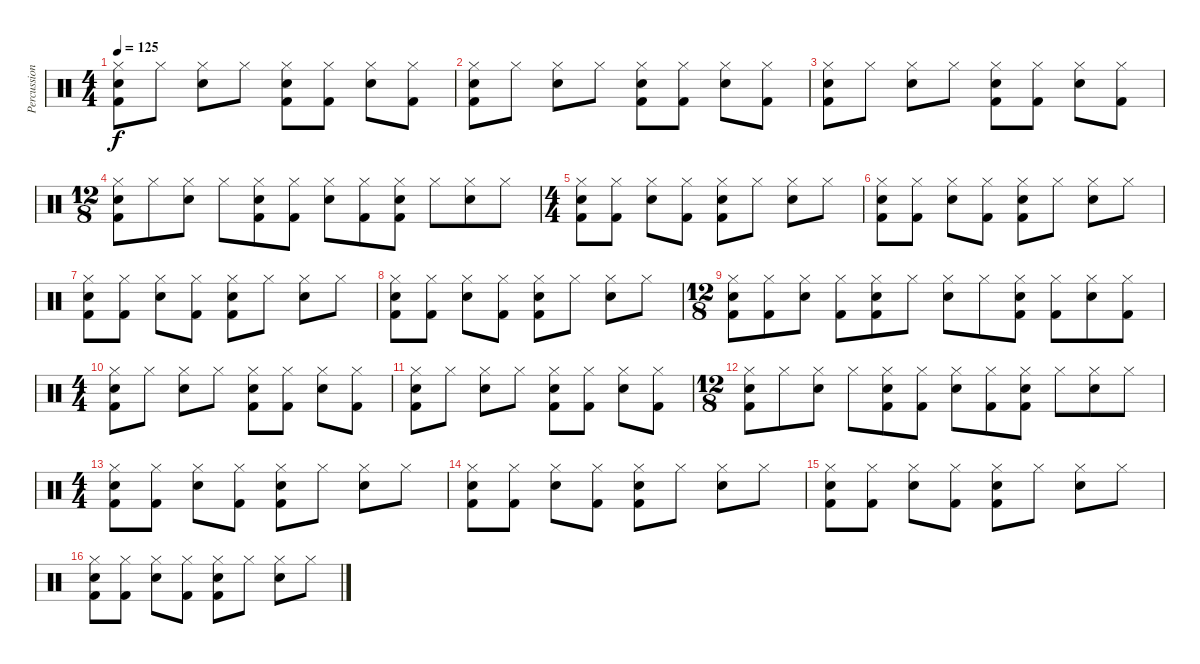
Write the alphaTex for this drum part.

\track ("Percussion" "Percussion") {instrument percussion}
\staff {score}
\articulation defaults
\ts (4 4)
\tempo 125
\clef neutral
\ks c
("Hi-Hat (closed)" "Electric Snare (hit)" "Kick (hit) 2").8{dy f} "Hi-Hat (closed)".8 ("Hi-Hat (closed)" "Electric Snare (hit)").8 "Hi-Hat (closed)".8 ("Hi-Hat (closed)" "Electric Snare (hit)" "Kick (hit) 2").8 ("Hi-Hat (closed)" "Kick (hit) 2").8 ("Hi-Hat (closed)" "Electric Snare (hit)").8 ("Hi-Hat (closed)" "Kick (hit) 2").8 |
("Hi-Hat (closed)" "Electric Snare (hit)" "Kick (hit) 2").8 "Hi-Hat (closed)".8 ("Hi-Hat (closed)" "Electric Snare (hit)").8 "Hi-Hat (closed)".8 ("Hi-Hat (closed)" "Electric Snare (hit)" "Kick (hit) 2").8 ("Hi-Hat (closed)" "Kick (hit) 2").8 ("Hi-Hat (closed)" "Electric Snare (hit)").8 ("Hi-Hat (closed)" "Kick (hit) 2").8 |
("Hi-Hat (closed)" "Electric Snare (hit)" "Kick (hit) 2").8 "Hi-Hat (closed)".8 ("Hi-Hat (closed)" "Electric Snare (hit)").8 "Hi-Hat (closed)".8 ("Hi-Hat (closed)" "Electric Snare (hit)" "Kick (hit) 2").8 ("Hi-Hat (closed)" "Kick (hit) 2").8 ("Hi-Hat (closed)" "Electric Snare (hit)").8 ("Hi-Hat (closed)" "Kick (hit) 2").8 |
\ts (12 8)
("Hi-Hat (closed)" "Electric Snare (hit)" "Kick (hit) 2").8 "Hi-Hat (closed)".8 ("Hi-Hat (closed)" "Electric Snare (hit)").8 "Hi-Hat (closed)".8 ("Hi-Hat (closed)" "Electric Snare (hit)" "Kick (hit) 2").8 ("Hi-Hat (closed)" "Kick (hit) 2").8 ("Hi-Hat (closed)" "Electric Snare (hit)").8 ("Hi-Hat (closed)" "Kick (hit) 2").8 ("Hi-Hat (closed)" "Electric Snare (hit)" "Kick (hit) 2").8 "Hi-Hat (closed)".8 ("Hi-Hat (closed)" "Electric Snare (hit)").8 "Hi-Hat (closed)".8 |
\ts (4 4)
("Hi-Hat (closed)" "Electric Snare (hit)" "Kick (hit) 2").8 ("Hi-Hat (closed)" "Kick (hit) 2").8 ("Hi-Hat (closed)" "Electric Snare (hit)").8 ("Hi-Hat (closed)" "Kick (hit) 2").8 ("Hi-Hat (closed)" "Electric Snare (hit)" "Kick (hit) 2").8 "Hi-Hat (closed)".8 ("Hi-Hat (closed)" "Electric Snare (hit)").8 "Hi-Hat (closed)".8 |
("Hi-Hat (closed)" "Electric Snare (hit)" "Kick (hit) 2").8 ("Hi-Hat (closed)" "Kick (hit) 2").8 ("Hi-Hat (closed)" "Electric Snare (hit)").8 ("Hi-Hat (closed)" "Kick (hit) 2").8 ("Hi-Hat (closed)" "Electric Snare (hit)" "Kick (hit) 2").8 "Hi-Hat (closed)".8 ("Hi-Hat (closed)" "Electric Snare (hit)").8 "Hi-Hat (closed)".8 |
("Hi-Hat (closed)" "Electric Snare (hit)" "Kick (hit) 2").8 ("Hi-Hat (closed)" "Kick (hit) 2").8 ("Hi-Hat (closed)" "Electric Snare (hit)").8 ("Hi-Hat (closed)" "Kick (hit) 2").8 ("Hi-Hat (closed)" "Electric Snare (hit)" "Kick (hit) 2").8 "Hi-Hat (closed)".8 ("Hi-Hat (closed)" "Electric Snare (hit)").8 "Hi-Hat (closed)".8 |
("Hi-Hat (closed)" "Electric Snare (hit)" "Kick (hit) 2").8 ("Hi-Hat (closed)" "Kick (hit) 2").8 ("Hi-Hat (closed)" "Electric Snare (hit)").8 ("Hi-Hat (closed)" "Kick (hit) 2").8 ("Hi-Hat (closed)" "Electric Snare (hit)" "Kick (hit) 2").8 "Hi-Hat (closed)".8 ("Hi-Hat (closed)" "Electric Snare (hit)").8 "Hi-Hat (closed)".8 |
\ts (12 8)
("Hi-Hat (closed)" "Electric Snare (hit)" "Kick (hit) 2").8 ("Hi-Hat (closed)" "Kick (hit) 2").8 ("Hi-Hat (closed)" "Electric Snare (hit)").8 ("Hi-Hat (closed)" "Kick (hit) 2").8 ("Hi-Hat (closed)" "Electric Snare (hit)" "Kick (hit) 2").8 "Hi-Hat (closed)".8 ("Hi-Hat (closed)" "Electric Snare (hit)").8 "Hi-Hat (closed)".8 ("Hi-Hat (closed)" "Electric Snare (hit)" "Kick (hit) 2").8 ("Hi-Hat (closed)" "Kick (hit) 2").8 ("Hi-Hat (closed)" "Electric Snare (hit)").8 ("Hi-Hat (closed)" "Kick (hit) 2").8 |
\ts (4 4)
("Hi-Hat (closed)" "Electric Snare (hit)" "Kick (hit) 2").8 "Hi-Hat (closed)".8 ("Hi-Hat (closed)" "Electric Snare (hit)").8 "Hi-Hat (closed)".8 ("Hi-Hat (closed)" "Electric Snare (hit)" "Kick (hit) 2").8 ("Hi-Hat (closed)" "Kick (hit) 2").8 ("Hi-Hat (closed)" "Electric Snare (hit)").8 ("Hi-Hat (closed)" "Kick (hit) 2").8 |
("Hi-Hat (closed)" "Electric Snare (hit)" "Kick (hit) 2").8 "Hi-Hat (closed)".8 ("Hi-Hat (closed)" "Electric Snare (hit)").8 "Hi-Hat (closed)".8 ("Hi-Hat (closed)" "Electric Snare (hit)" "Kick (hit) 2").8 ("Hi-Hat (closed)" "Kick (hit) 2").8 ("Hi-Hat (closed)" "Electric Snare (hit)").8 ("Hi-Hat (closed)" "Kick (hit) 2").8 |
\ts (12 8)
("Hi-Hat (closed)" "Electric Snare (hit)" "Kick (hit) 2").8 "Hi-Hat (closed)".8 ("Hi-Hat (closed)" "Electric Snare (hit)").8 "Hi-Hat (closed)".8 ("Hi-Hat (closed)" "Electric Snare (hit)" "Kick (hit) 2").8 ("Hi-Hat (closed)" "Kick (hit) 2").8 ("Hi-Hat (closed)" "Electric Snare (hit)").8 ("Hi-Hat (closed)" "Kick (hit) 2").8 ("Hi-Hat (closed)" "Electric Snare (hit)" "Kick (hit) 2").8 "Hi-Hat (closed)".8 ("Hi-Hat (closed)" "Electric Snare (hit)").8 "Hi-Hat (closed)".8 |
\ts (4 4)
("Hi-Hat (closed)" "Electric Snare (hit)" "Kick (hit) 2").8 ("Hi-Hat (closed)" "Kick (hit) 2").8 ("Hi-Hat (closed)" "Electric Snare (hit)").8 ("Hi-Hat (closed)" "Kick (hit) 2").8 ("Hi-Hat (closed)" "Electric Snare (hit)" "Kick (hit) 2").8 "Hi-Hat (closed)".8 ("Hi-Hat (closed)" "Electric Snare (hit)").8 "Hi-Hat (closed)".8 |
("Hi-Hat (closed)" "Electric Snare (hit)" "Kick (hit) 2").8 ("Hi-Hat (closed)" "Kick (hit) 2").8 ("Hi-Hat (closed)" "Electric Snare (hit)").8 ("Hi-Hat (closed)" "Kick (hit) 2").8 ("Hi-Hat (closed)" "Electric Snare (hit)" "Kick (hit) 2").8 "Hi-Hat (closed)".8 ("Hi-Hat (closed)" "Electric Snare (hit)").8 "Hi-Hat (closed)".8 |
("Hi-Hat (closed)" "Electric Snare (hit)" "Kick (hit) 2").8 ("Hi-Hat (closed)" "Kick (hit) 2").8 ("Hi-Hat (closed)" "Electric Snare (hit)").8 ("Hi-Hat (closed)" "Kick (hit) 2").8 ("Hi-Hat (closed)" "Electric Snare (hit)" "Kick (hit) 2").8 "Hi-Hat (closed)".8 ("Hi-Hat (closed)" "Electric Snare (hit)").8 "Hi-Hat (closed)".8 |
("Hi-Hat (closed)" "Electric Snare (hit)" "Kick (hit) 2").8 ("Hi-Hat (closed)" "Kick (hit) 2").8 ("Hi-Hat (closed)" "Electric Snare (hit)").8 ("Hi-Hat (closed)" "Kick (hit) 2").8 ("Hi-Hat (closed)" "Electric Snare (hit)" "Kick (hit) 2").8 "Hi-Hat (closed)".8 ("Hi-Hat (closed)" "Electric Snare (hit)").8 "Hi-Hat (closed)".8
